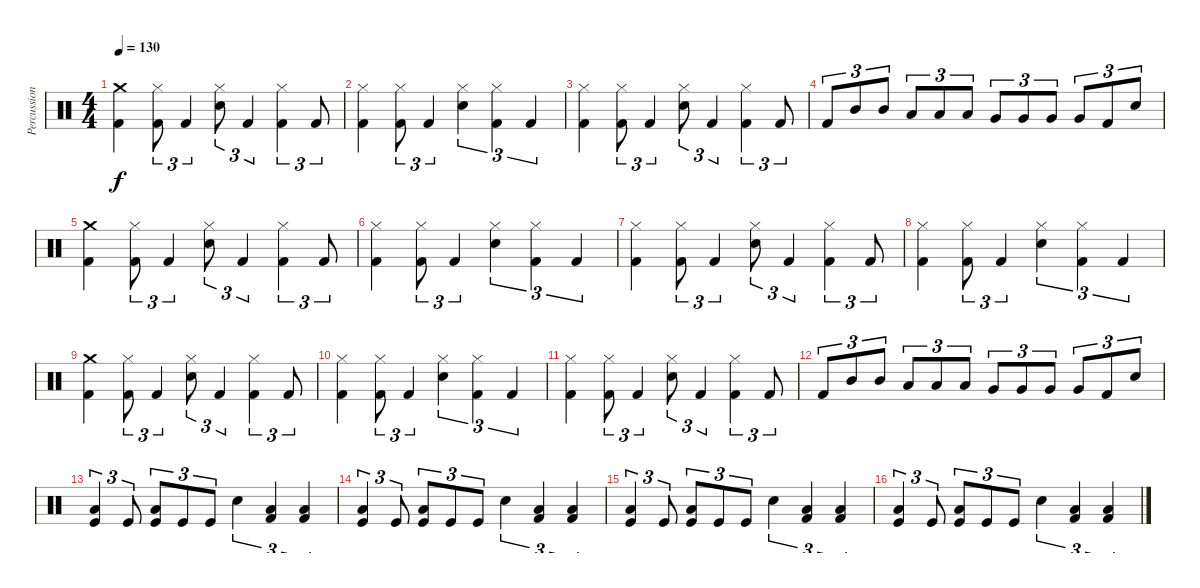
\track ("Percussion" "Percussion") {instrument percussion}
\staff {score}
\articulation defaults
\ts (4 4)
\tempo 130
\clef neutral
\ks c
("Kick (hit) 2" "Crash medium (hit)").4{dy f} ("Kick (hit) 2" "Hi-Hat (closed)").8{tu (3 2)} "Kick (hit) 2".4{tu (3 2)} ("Snare (hit) 2" "Hi-Hat (closed)").8{tu (3 2)} "Kick (hit) 2".4{tu (3 2)} ("Kick (hit) 2" "Hi-Hat (closed)").4{tu (3 2)} "Kick (hit) 2".8{tu (3 2)} |
("Kick (hit) 2" "Hi-Hat (closed)").4 ("Kick (hit) 2" "Hi-Hat (closed)").8{tu (3 2)} "Kick (hit) 2".4{tu (3 2)} ("Snare (hit) 2" "Hi-Hat (closed)").4{tu (3 2)} ("Kick (hit) 2" "Hi-Hat (closed)").4{tu (3 2)} "Kick (hit) 2".4{tu (3 2)} |
("Kick (hit) 2" "Hi-Hat (closed)").4 ("Kick (hit) 2" "Hi-Hat (closed)").8{tu (3 2)} "Kick (hit) 2".4{tu (3 2)} ("Snare (hit) 2" "Hi-Hat (closed)").8{tu (3 2)} "Kick (hit) 2".4{tu (3 2)} ("Kick (hit) 2" "Hi-Hat (closed)").4{tu (3 2)} "Kick (hit) 2".8{tu (3 2)} |
"Kick (hit) 2".8{tu (3 2)} "Mid Tom (hit)".8{tu (3 2)} "Mid Tom (hit)".8{tu (3 2)} "Low Tom (hit)".8{tu (3 2)} "Low Tom (hit)".8{tu (3 2)} "Low Tom (hit)".8{tu (3 2)} "Very Low Tom (hit)".8{tu (3 2)} "Very Low Tom (hit)".8{tu (3 2)} "Very Low Tom (hit)".8{tu (3 2)} "Very Low Tom (hit)".8{tu (3 2)} "Kick (hit) 2".8{tu (3 2)} "Snare (hit) 2".8{tu (3 2)} |
("Kick (hit) 2" "Crash medium (hit)").4 ("Kick (hit) 2" "Hi-Hat (closed)").8{tu (3 2)} "Kick (hit) 2".4{tu (3 2)} ("Snare (hit) 2" "Hi-Hat (closed)").8{tu (3 2)} "Kick (hit) 2".4{tu (3 2)} ("Kick (hit) 2" "Hi-Hat (closed)").4{tu (3 2)} "Kick (hit) 2".8{tu (3 2)} |
("Kick (hit) 2" "Hi-Hat (closed)").4 ("Kick (hit) 2" "Hi-Hat (closed)").8{tu (3 2)} "Kick (hit) 2".4{tu (3 2)} ("Snare (hit) 2" "Hi-Hat (closed)").4{tu (3 2)} ("Kick (hit) 2" "Hi-Hat (closed)").4{tu (3 2)} "Kick (hit) 2".4{tu (3 2)} |
("Kick (hit) 2" "Hi-Hat (closed)").4 ("Kick (hit) 2" "Hi-Hat (closed)").8{tu (3 2)} "Kick (hit) 2".4{tu (3 2)} ("Snare (hit) 2" "Hi-Hat (closed)").8{tu (3 2)} "Kick (hit) 2".4{tu (3 2)} ("Kick (hit) 2" "Hi-Hat (closed)").4{tu (3 2)} "Kick (hit) 2".8{tu (3 2)} |
("Kick (hit) 2" "Hi-Hat (closed)").4 ("Kick (hit) 2" "Hi-Hat (closed)").8{tu (3 2)} "Kick (hit) 2".4{tu (3 2)} ("Snare (hit) 2" "Hi-Hat (closed)").4{tu (3 2)} ("Kick (hit) 2" "Hi-Hat (closed)").4{tu (3 2)} "Kick (hit) 2".4{tu (3 2)} |
("Kick (hit) 2" "Crash medium (hit)").4 ("Kick (hit) 2" "Hi-Hat (closed)").8{tu (3 2)} "Kick (hit) 2".4{tu (3 2)} ("Snare (hit) 2" "Hi-Hat (closed)").8{tu (3 2)} "Kick (hit) 2".4{tu (3 2)} ("Kick (hit) 2" "Hi-Hat (closed)").4{tu (3 2)} "Kick (hit) 2".8{tu (3 2)} |
("Kick (hit) 2" "Hi-Hat (closed)").4 ("Kick (hit) 2" "Hi-Hat (closed)").8{tu (3 2)} "Kick (hit) 2".4{tu (3 2)} ("Snare (hit) 2" "Hi-Hat (closed)").4{tu (3 2)} ("Kick (hit) 2" "Hi-Hat (closed)").4{tu (3 2)} "Kick (hit) 2".4{tu (3 2)} |
("Kick (hit) 2" "Hi-Hat (closed)").4 ("Kick (hit) 2" "Hi-Hat (closed)").8{tu (3 2)} "Kick (hit) 2".4{tu (3 2)} ("Snare (hit) 2" "Hi-Hat (closed)").8{tu (3 2)} "Kick (hit) 2".4{tu (3 2)} ("Kick (hit) 2" "Hi-Hat (closed)").4{tu (3 2)} "Kick (hit) 2".8{tu (3 2)} |
"Kick (hit) 2".8{tu (3 2)} "Mid Tom (hit)".8{tu (3 2)} "Mid Tom (hit)".8{tu (3 2)} "Low Tom (hit)".8{tu (3 2)} "Low Tom (hit)".8{tu (3 2)} "Low Tom (hit)".8{tu (3 2)} "Very Low Tom (hit)".8{tu (3 2)} "Very Low Tom (hit)".8{tu (3 2)} "Very Low Tom (hit)".8{tu (3 2)} "Very Low Tom (hit)".8{tu (3 2)} "Kick (hit) 2".8{tu (3 2)} "Snare (hit) 2".8{tu (3 2)} |
("Kick (hit)" "Low Floor Tom (hit)").4{tu (3 2)} "Kick (hit)".8{tu (3 2)} ("Kick (hit)" "Low Tom (hit)").8{tu (3 2)} "Kick (hit)".8{tu (3 2)} "Kick (hit)".8{tu (3 2)} "Snare (hit) 2".4{tu (3 2)} ("Kick (hit) 2" "Low Floor Tom (hit)").4{tu (3 2)} ("Kick (hit) 2" "Low Floor Tom (hit)").4{tu (3 2)} |
("Kick (hit)" "Low Floor Tom (hit)").4{tu (3 2)} "Kick (hit)".8{tu (3 2)} ("Kick (hit)" "Low Tom (hit)").8{tu (3 2)} "Kick (hit)".8{tu (3 2)} "Kick (hit)".8{tu (3 2)} "Snare (hit) 2".4{tu (3 2)} ("Kick (hit) 2" "Low Floor Tom (hit)").4{tu (3 2)} ("Kick (hit) 2" "Low Floor Tom (hit)").4{tu (3 2)} |
("Kick (hit)" "Low Floor Tom (hit)").4{tu (3 2)} "Kick (hit)".8{tu (3 2)} ("Kick (hit)" "Low Tom (hit)").8{tu (3 2)} "Kick (hit)".8{tu (3 2)} "Kick (hit)".8{tu (3 2)} "Snare (hit) 2".4{tu (3 2)} ("Kick (hit) 2" "Low Floor Tom (hit)").4{tu (3 2)} ("Kick (hit) 2" "Low Floor Tom (hit)").4{tu (3 2)} |
("Kick (hit)" "Low Floor Tom (hit)").4{tu (3 2)} "Kick (hit)".8{tu (3 2)} ("Kick (hit)" "Low Tom (hit)").8{tu (3 2)} "Kick (hit)".8{tu (3 2)} "Kick (hit)".8{tu (3 2)} "Snare (hit) 2".4{tu (3 2)} ("Kick (hit) 2" "Low Floor Tom (hit)").4{tu (3 2)} ("Kick (hit) 2" "Low Floor Tom (hit)").4{tu (3 2)}
